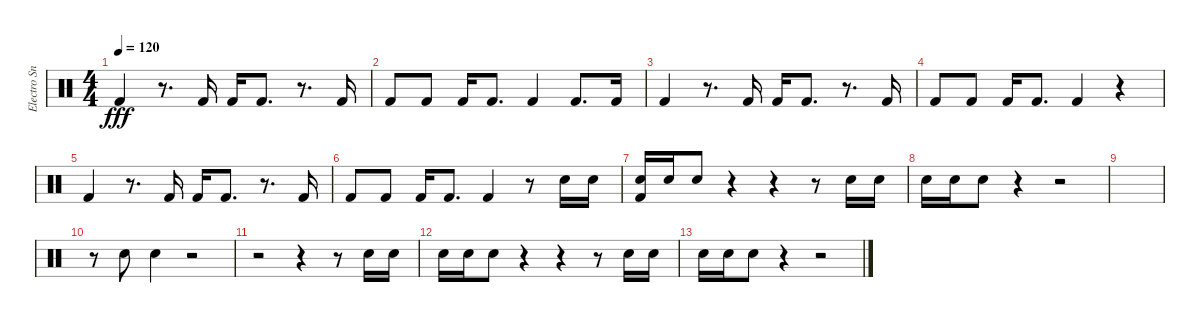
\track ("Electro Snare" "Electro Sn") {instrument percussion}
\staff {score}
\articulation defaults
\ts (4 4)
\tempo 120
\clef neutral
\ks c "Kick (hit) 2".4{dy fff}
r.8{d} "Kick (hit) 2".16 "Kick (hit) 2".16 "Kick (hit) 2".8{d} r.8{d} "Kick (hit) 2".16 |
"Kick (hit) 2".8 "Kick (hit) 2".8 "Kick (hit) 2".16 "Kick (hit) 2".8{d} "Kick (hit) 2".4 "Kick (hit) 2".8{d} "Kick (hit) 2".16 |
"Kick (hit) 2".4 r.8{d} "Kick (hit) 2".16 "Kick (hit) 2".16 "Kick (hit) 2".8{d} r.8{d} "Kick (hit) 2".16 |
"Kick (hit) 2".8 "Kick (hit) 2".8 "Kick (hit) 2".16 "Kick (hit) 2".8{d} "Kick (hit) 2".4 r.4 |
"Kick (hit) 2".4 r.8{d} "Kick (hit) 2".16 "Kick (hit) 2".16 "Kick (hit) 2".8{d} r.8{d} "Kick (hit) 2".16 |
"Kick (hit) 2".8 "Kick (hit) 2".8 "Kick (hit) 2".16 "Kick (hit) 2".8{d} "Kick (hit) 2".4 r.8 "Electric Snare (hit)".16 "Electric Snare (hit)".16 |
("Electric Snare (hit)" "Kick (hit) 2").16 "Electric Snare (hit)".16 "Electric Snare (hit)".8 r.4 r.4 r.8 "Electric Snare (hit)".16 "Electric Snare (hit)".16 |
"Electric Snare (hit)".16 "Electric Snare (hit)".16 "Electric Snare (hit)".8 r.4 r.2 |
|
r.8 "Electric Snare (hit)".8 "Electric Snare (hit)".4 r.2 |
r.2 r.4 r.8 "Electric Snare (hit)".16 "Electric Snare (hit)".16 |
"Electric Snare (hit)".16 "Electric Snare (hit)".16 "Electric Snare (hit)".8 r.4 r.4 r.8 "Electric Snare (hit)".16 "Electric Snare (hit)".16 |
"Electric Snare (hit)".16 "Electric Snare (hit)".16 "Electric Snare (hit)".8 r.4 r.2
